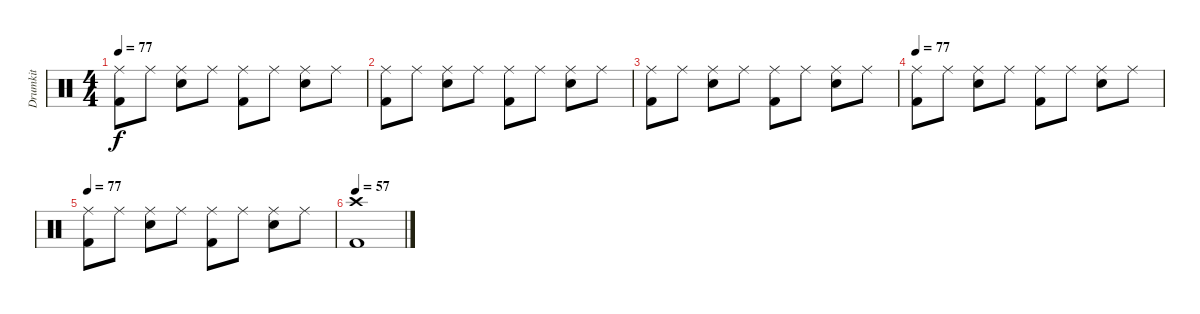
\track ("Drumkit" "Drumkit") {instrument percussion}
\staff {score}
\articulation defaults
\ts (4 4)
\tempo 77
\clef neutral
\ks c
("Ride (middle)" "Kick (hit) 2").8{dy f} "Ride (middle)".8 ("Ride (middle)" "Snare (hit) 2").8 "Ride (middle)".8 ("Ride (middle)" "Kick (hit) 2").8 "Ride (middle)".8 ("Ride (middle)" "Snare (hit) 2").8 "Ride (middle)".8 |
("Ride (middle)" "Kick (hit) 2").8 "Ride (middle)".8 ("Ride (middle)" "Snare (hit) 2").8 "Ride (middle)".8 ("Ride (middle)" "Kick (hit) 2").8 "Ride (middle)".8 ("Ride (middle)" "Snare (hit) 2").8 "Ride (middle)".8 |
("Ride (middle)" "Kick (hit) 2").8 "Ride (middle)".8 ("Ride (middle)" "Snare (hit) 2").8 "Ride (middle)".8 ("Ride (middle)" "Kick (hit) 2").8 "Ride (middle)".8 ("Ride (middle)" "Snare (hit) 2").8 "Ride (middle)".8 |
\tempo 77
("Ride (middle)" "Kick (hit) 2").8 "Ride (middle)".8 ("Ride (middle)" "Snare (hit) 2").8 "Ride (middle)".8 ("Ride (middle)" "Kick (hit) 2").8 "Ride (middle)".8 ("Ride (middle)" "Snare (hit) 2").8 "Ride (middle)".8 |
\tempo 77
("Ride (middle)" "Kick (hit) 2").8 "Ride (middle)".8 ("Ride (middle)" "Snare (hit) 2").8 "Ride (middle)".8 ("Ride (middle)" "Kick (hit) 2").8 "Ride (middle)".8 ("Ride (middle)" "Snare (hit) 2").8 "Ride (middle)".8 |
\tempo 57
("Crash high (hit)" "Kick (hit) 2").1
